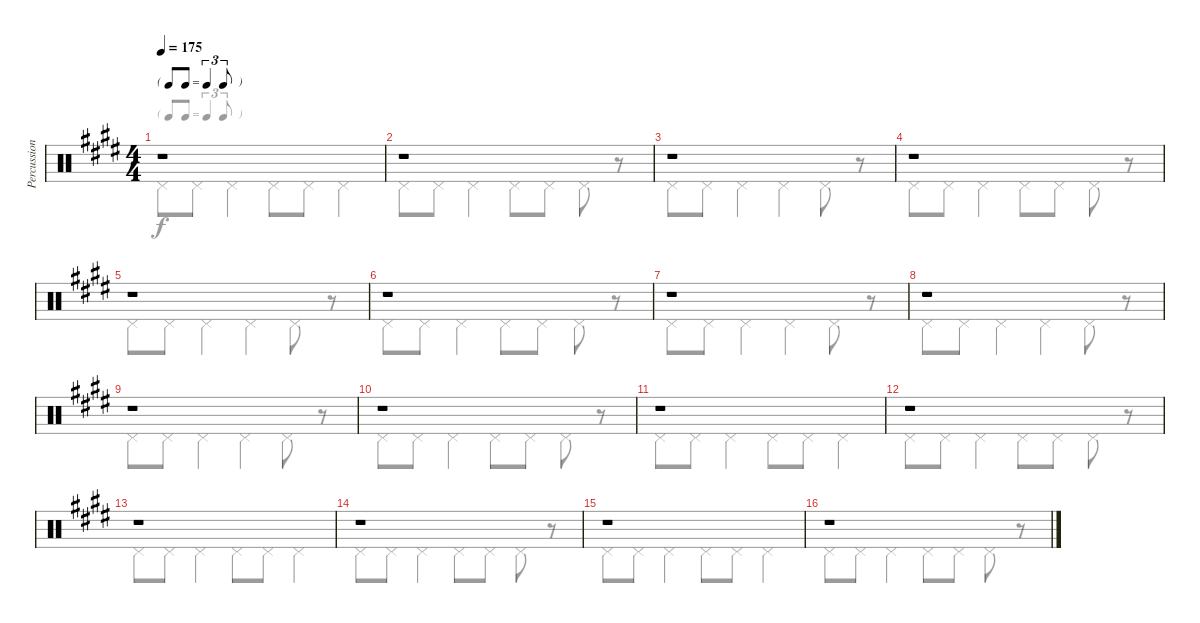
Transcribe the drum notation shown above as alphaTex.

\track ("Percussion" "Percussion") {instrument percussion}
\staff {score}
\articulation defaults
\voice
\ts (4 4)
\tf triplet8th
\tempo 175
\clef neutral
\ks e
r.1{dy f} |
r.1 |
r.1 |
r.1 |
r.1 |
r.1 |
r.1 |
r.1 |
r.1 |
r.1 |
r.1 |
r.1 |
r.1 |
r.1 |
r.1 |
r.1
\voice
\clef neutral
\ottava regular
\simile none
\ks e "Pedal Hi-Hat (hit)".8{dy f} "Pedal Hi-Hat (hit)".8 "Pedal Hi-Hat (hit)".4 "Pedal Hi-Hat (hit)".8 "Pedal Hi-Hat (hit)".8 "Pedal Hi-Hat (hit)".4
|
"Pedal Hi-Hat (hit)".8 "Pedal Hi-Hat (hit)".8 "Pedal Hi-Hat (hit)".4 "Pedal Hi-Hat (hit)".8 "Pedal Hi-Hat (hit)".8 "Pedal Hi-Hat (hit)".8 r.8 |
"Pedal Hi-Hat (hit)".8 "Pedal Hi-Hat (hit)".8 "Pedal Hi-Hat (hit)".4 "Pedal Hi-Hat (hit)".4 "Pedal Hi-Hat (hit)".8 r.8 |
"Pedal Hi-Hat (hit)".8 "Pedal Hi-Hat (hit)".8 "Pedal Hi-Hat (hit)".4 "Pedal Hi-Hat (hit)".8 "Pedal Hi-Hat (hit)".8 "Pedal Hi-Hat (hit)".8 r.8 |
"Pedal Hi-Hat (hit)".8 "Pedal Hi-Hat (hit)".8 "Pedal Hi-Hat (hit)".4 "Pedal Hi-Hat (hit)".4 "Pedal Hi-Hat (hit)".8 r.8 |
"Pedal Hi-Hat (hit)".8 "Pedal Hi-Hat (hit)".8 "Pedal Hi-Hat (hit)".4 "Pedal Hi-Hat (hit)".8 "Pedal Hi-Hat (hit)".8 "Pedal Hi-Hat (hit)".8 r.8 |
"Pedal Hi-Hat (hit)".8 "Pedal Hi-Hat (hit)".8 "Pedal Hi-Hat (hit)".4 "Pedal Hi-Hat (hit)".4 "Pedal Hi-Hat (hit)".8 r.8 |
"Pedal Hi-Hat (hit)".8 "Pedal Hi-Hat (hit)".8 "Pedal Hi-Hat (hit)".4 "Pedal Hi-Hat (hit)".4 "Pedal Hi-Hat (hit)".8 r.8 |
"Pedal Hi-Hat (hit)".8 "Pedal Hi-Hat (hit)".8 "Pedal Hi-Hat (hit)".4 "Pedal Hi-Hat (hit)".4 "Pedal Hi-Hat (hit)".8 r.8 |
"Pedal Hi-Hat (hit)".8 "Pedal Hi-Hat (hit)".8 "Pedal Hi-Hat (hit)".4 "Pedal Hi-Hat (hit)".8 "Pedal Hi-Hat (hit)".8 "Pedal Hi-Hat (hit)".8 r.8 |
"Pedal Hi-Hat (hit)".8 "Pedal Hi-Hat (hit)".8 "Pedal Hi-Hat (hit)".4 "Pedal Hi-Hat (hit)".8 "Pedal Hi-Hat (hit)".8 "Pedal Hi-Hat (hit)".4 |
"Pedal Hi-Hat (hit)".8 "Pedal Hi-Hat (hit)".8 "Pedal Hi-Hat (hit)".4 "Pedal Hi-Hat (hit)".8 "Pedal Hi-Hat (hit)".8 "Pedal Hi-Hat (hit)".8 r.8 |
"Pedal Hi-Hat (hit)".8 "Pedal Hi-Hat (hit)".8 "Pedal Hi-Hat (hit)".4 "Pedal Hi-Hat (hit)".8 "Pedal Hi-Hat (hit)".8 "Pedal Hi-Hat (hit)".4 |
"Pedal Hi-Hat (hit)".8 "Pedal Hi-Hat (hit)".8 "Pedal Hi-Hat (hit)".4 "Pedal Hi-Hat (hit)".8 "Pedal Hi-Hat (hit)".8 "Pedal Hi-Hat (hit)".8 r.8 |
"Pedal Hi-Hat (hit)".8 "Pedal Hi-Hat (hit)".8 "Pedal Hi-Hat (hit)".4 "Pedal Hi-Hat (hit)".8 "Pedal Hi-Hat (hit)".8 "Pedal Hi-Hat (hit)".4 |
"Pedal Hi-Hat (hit)".8 "Pedal Hi-Hat (hit)".8 "Pedal Hi-Hat (hit)".4 "Pedal Hi-Hat (hit)".8 "Pedal Hi-Hat (hit)".8 "Pedal Hi-Hat (hit)".8 r.8
